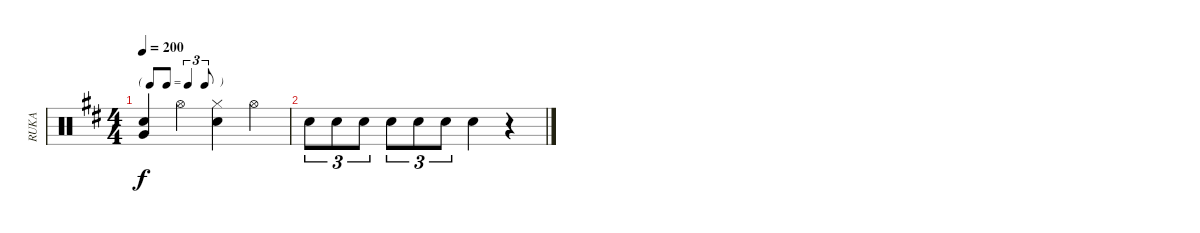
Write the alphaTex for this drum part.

\track ("RUKA" "RUKA") {instrument percussion}
\staff {score}
\articulation defaults
\ts (4 4)
\tf triplet8th
\tempo 200
\clef neutral
\ks d
("Very Low Tom (hit)" "Snare (hit) 2").4{dy f} "Hi-Hat (open)".4 ("Hi-Hat (closed)" "Snare (hit) 2").4 "Hi-Hat (open)".4 |
"Snare (hit) 2".8{tu (3 2)} "Snare (hit) 2".8{tu (3 2)} "Snare (hit) 2".8{tu (3 2)} "Snare (hit) 2".8{tu (3 2)} "Snare (hit) 2".8{tu (3 2)} "Snare (hit) 2".8{tu (3 2)} "Snare (hit) 2".4 r.4
